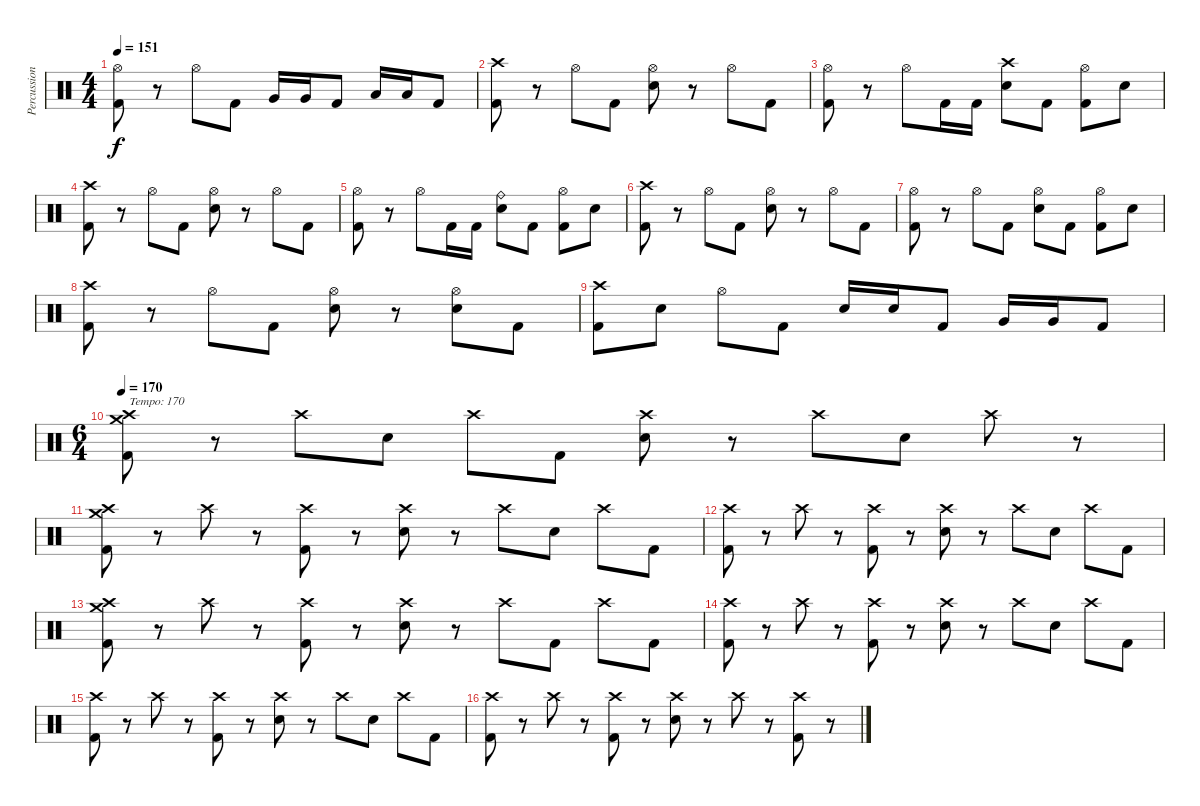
\track ("Percussion" "Percussion") {instrument percussion}
\staff {score}
\articulation defaults
\ts (4 4)
\tempo 151
\clef neutral
\ks c
("Hi-Hat (open)" "Kick (hit) 2").8{dy f} r.8 "Hi-Hat (open)".8 "Kick (hit) 2".8 "Very Low Tom (hit)".16 "Very Low Tom (hit)".16 "Kick (hit) 2".8 "Low Floor Tom (hit)".16 "Low Floor Tom (hit)".16 "Kick (hit) 2".8 |
("Crash high (hit)" "Kick (hit) 2").8 r.8 "Hi-Hat (open)".8 "Kick (hit) 2".8 ("Hi-Hat (open)" "Electric Snare (hit)").8 r.8 "Hi-Hat (open)".8 "Kick (hit) 2".8 |
("Hi-Hat (open)" "Kick (hit) 2").8 r.8 "Hi-Hat (open)".8 "Kick (hit) 2".16 "Kick (hit) 2".16 ("Crash high (hit)" "Electric Snare (hit)").8 "Kick (hit) 2".8 ("Hi-Hat (open)" "Kick (hit) 2").8 "Electric Snare (hit)".8 |
("Crash high (hit)" "Kick (hit) 2").8 r.8 "Hi-Hat (open)".8 "Kick (hit) 2".8 ("Hi-Hat (open)" "Electric Snare (hit)").8 r.8 "Hi-Hat (open)".8 "Kick (hit) 2".8 |
("Hi-Hat (open)" "Kick (hit) 2").8 r.8 "Hi-Hat (open)".8 "Kick (hit) 2".16 "Kick (hit) 2".16 ("Ride (bell)" "Electric Snare (hit)").8 "Kick (hit) 2".8 ("Hi-Hat (open)" "Kick (hit) 2").8 "Electric Snare (hit)".8 |
("Crash high (hit)" "Kick (hit) 2").8 r.8 "Hi-Hat (open)".8 "Kick (hit) 2".8 ("Hi-Hat (open)" "Electric Snare (hit)").8 r.8 "Hi-Hat (open)".8 "Kick (hit) 2".8 |
("Hi-Hat (open)" "Kick (hit) 2").8 r.8 "Hi-Hat (open)".8 "Kick (hit) 2".8 ("Hi-Hat (open)" "Electric Snare (hit)").8 "Kick (hit) 2".8 ("Hi-Hat (open)" "Kick (hit) 2").8 "Electric Snare (hit)".8 |
("Crash high (hit)" "Kick (hit) 2").8 r.8 "Hi-Hat (open)".8 "Kick (hit) 2".8 ("Hi-Hat (open)" "Electric Snare (hit)").8 r.8 ("Hi-Hat (open)" "Electric Snare (hit)").8 "Kick (hit) 2".8 |
("Crash high (hit)" "Kick (hit) 2").8 "Electric Snare (hit)".8 "Hi-Hat (open)".8 "Kick (hit) 2".8 "Electric Snare (hit)".16 "Electric Snare (hit)".16 "Kick (hit) 2".8 "Very Low Tom (hit)".16 "Very Low Tom (hit)".16 "Kick (hit) 2".8 |
\ts (6 4)
\tempo 170
("Crash medium (hit)" "Crash high (hit)" "Kick (hit) 2").8{txt "Tempo: 170"} r.8 "Crash high (hit)".8 "Electric Snare (hit)".8 "Crash high (hit)".8 "Kick (hit) 2".8 ("Crash high (hit)" "Electric Snare (hit)").8 r.8 "Crash high (hit)".8 "Electric Snare (hit)".8 "Crash high (hit)".8 r.8 |
("Crash medium (hit)" "Crash high (hit)" "Kick (hit) 2").8 r.8 "Crash high (hit)".8 r.8 ("Crash high (hit)" "Kick (hit) 2").8 r.8 ("Crash high (hit)" "Electric Snare (hit)").8 r.8 "Crash high (hit)".8 "Electric Snare (hit)".8 "Crash high (hit)".8 "Kick (hit) 2".8 |
("Crash high (hit)" "Kick (hit) 2").8 r.8 "Crash high (hit)".8 r.8 ("Crash high (hit)" "Kick (hit) 2").8 r.8 ("Crash high (hit)" "Electric Snare (hit)").8 r.8 "Crash high (hit)".8 "Electric Snare (hit)".8 "Crash high (hit)".8 "Kick (hit) 2".8 |
("Crash medium (hit)" "Crash high (hit)" "Kick (hit) 2").8 r.8 "Crash high (hit)".8 r.8 ("Crash high (hit)" "Kick (hit) 2").8 r.8 ("Crash high (hit)" "Electric Snare (hit)").8 r.8 "Crash high (hit)".8 "Kick (hit) 2".8 "Crash high (hit)".8 "Kick (hit) 2".8 |
("Crash high (hit)" "Kick (hit) 2").8 r.8 "Crash high (hit)".8 r.8 ("Crash high (hit)" "Kick (hit) 2").8 r.8 ("Crash high (hit)" "Electric Snare (hit)").8 r.8 "Crash high (hit)".8 "Electric Snare (hit)".8 "Crash high (hit)".8 "Kick (hit) 2".8 |
("Crash high (hit)" "Kick (hit) 2").8 r.8 "Crash high (hit)".8 r.8 ("Crash high (hit)" "Kick (hit) 2").8 r.8 ("Crash high (hit)" "Electric Snare (hit)").8 r.8 "Crash high (hit)".8 "Electric Snare (hit)".8 "Crash high (hit)".8 "Kick (hit) 2".8 |
("Crash high (hit)" "Kick (hit) 2").8 r.8 "Crash high (hit)".8 r.8 ("Crash high (hit)" "Kick (hit) 2").8 r.8 ("Crash high (hit)" "Electric Snare (hit)").8 r.8 "Crash high (hit)".8 r.8 ("Crash high (hit)" "Kick (hit) 2").8 r.8
